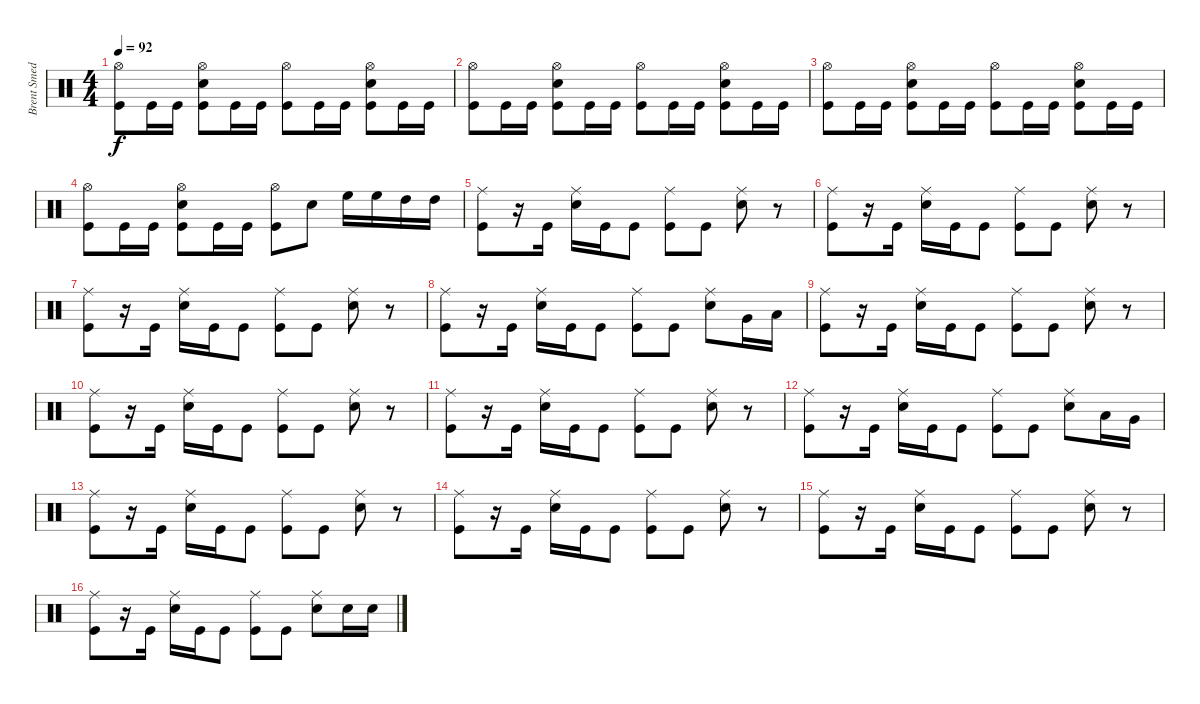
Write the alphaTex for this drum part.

\track ("Brent Smedley" "Brent Smed") {instrument percussion}
\staff {score}
\articulation defaults
\ts (4 4)
\tempo 92
\clef neutral
\ks c
("Hi-Hat (open)" "Kick (hit)").8{dy f} "Kick (hit)".16 "Kick (hit)".16 ("Hi-Hat (open)" "Electric Snare (hit)" "Kick (hit)").8 "Kick (hit)".16 "Kick (hit)".16 ("Hi-Hat (open)" "Kick (hit)").8 "Kick (hit)".16 "Kick (hit)".16 ("Hi-Hat (open)" "Electric Snare (hit)" "Kick (hit)").8 "Kick (hit)".16 "Kick (hit)".16 |
("Hi-Hat (open)" "Kick (hit)").8 "Kick (hit)".16 "Kick (hit)".16 ("Hi-Hat (open)" "Electric Snare (hit)" "Kick (hit)").8 "Kick (hit)".16 "Kick (hit)".16 ("Hi-Hat (open)" "Kick (hit)").8 "Kick (hit)".16 "Kick (hit)".16 ("Hi-Hat (open)" "Electric Snare (hit)" "Kick (hit)").8 "Kick (hit)".16 "Kick (hit)".16 |
("Hi-Hat (open)" "Kick (hit)").8 "Kick (hit)".16 "Kick (hit)".16 ("Hi-Hat (open)" "Electric Snare (hit)" "Kick (hit)").8 "Kick (hit)".16 "Kick (hit)".16 ("Hi-Hat (open)" "Kick (hit)").8 "Kick (hit)".16 "Kick (hit)".16 ("Hi-Hat (open)" "Electric Snare (hit)" "Kick (hit)").8 "Kick (hit)".16 "Kick (hit)".16 |
("Hi-Hat (open)" "Kick (hit)").8 "Kick (hit)".16 "Kick (hit)".16 ("Hi-Hat (open)" "Electric Snare (hit)" "Kick (hit)").8 "Kick (hit)".16 "Kick (hit)".16 ("Hi-Hat (open)" "Kick (hit)").8 "Electric Snare (hit)".8 "High Floor Tom (hit)".16 "High Floor Tom (hit)".16 "High Tom (hit)".16 "High Tom (hit)".16 |
("Ride (middle)" "Kick (hit)").8 r.16 "Kick (hit)".16 ("Ride (middle)" "Electric Snare (hit)").16 "Kick (hit)".16 "Kick (hit)".8 ("Ride (middle)" "Kick (hit)").8 "Kick (hit)".8 ("Ride (middle)" "Electric Snare (hit)").8 r.8 |
("Ride (middle)" "Kick (hit)").8 r.16 "Kick (hit)".16 ("Ride (middle)" "Electric Snare (hit)").16 "Kick (hit)".16 "Kick (hit)".8 ("Ride (middle)" "Kick (hit)").8 "Kick (hit)".8 ("Ride (middle)" "Electric Snare (hit)").8 r.8 |
("Ride (middle)" "Kick (hit)").8 r.16 "Kick (hit)".16 ("Ride (middle)" "Electric Snare (hit)").16 "Kick (hit)".16 "Kick (hit)".8 ("Ride (middle)" "Kick (hit)").8 "Kick (hit)".8 ("Ride (middle)" "Electric Snare (hit)").8 r.8 |
("Ride (middle)" "Kick (hit)").8 r.16 "Kick (hit)".16 ("Ride (middle)" "Electric Snare (hit)").16 "Kick (hit)".16 "Kick (hit)".8 ("Ride (middle)" "Kick (hit)").8 "Kick (hit)".8 ("Ride (middle)" "Electric Snare (hit)").8 "Very Low Tom (hit)".16 "Low Floor Tom (hit)".16 |
("Ride (middle)" "Kick (hit)").8 r.16 "Kick (hit)".16 ("Ride (middle)" "Electric Snare (hit)").16 "Kick (hit)".16 "Kick (hit)".8 ("Ride (middle)" "Kick (hit)").8 "Kick (hit)".8 ("Ride (middle)" "Electric Snare (hit)").8 r.8 |
("Ride (middle)" "Kick (hit)").8 r.16 "Kick (hit)".16 ("Ride (middle)" "Electric Snare (hit)").16 "Kick (hit)".16 "Kick (hit)".8 ("Ride (middle)" "Kick (hit)").8 "Kick (hit)".8 ("Ride (middle)" "Electric Snare (hit)").8 r.8 |
("Ride (middle)" "Kick (hit)").8 r.16 "Kick (hit)".16 ("Ride (middle)" "Electric Snare (hit)").16 "Kick (hit)".16 "Kick (hit)".8 ("Ride (middle)" "Kick (hit)").8 "Kick (hit)".8 ("Ride (middle)" "Electric Snare (hit)").8 r.8 |
("Ride (middle)" "Kick (hit)").8 r.16 "Kick (hit)".16 ("Ride (middle)" "Electric Snare (hit)").16 "Kick (hit)".16 "Kick (hit)".8 ("Ride (middle)" "Kick (hit)").8 "Kick (hit)".8 ("Ride (middle)" "Electric Snare (hit)").8 "Low Tom (hit)".16 "Very Low Tom (hit)".16 |
("Ride (middle)" "Kick (hit)").8 r.16 "Kick (hit)".16 ("Ride (middle)" "Electric Snare (hit)").16 "Kick (hit)".16 "Kick (hit)".8 ("Ride (middle)" "Kick (hit)").8 "Kick (hit)".8 ("Ride (middle)" "Electric Snare (hit)").8 r.8 |
("Ride (middle)" "Kick (hit)").8 r.16 "Kick (hit)".16 ("Ride (middle)" "Electric Snare (hit)").16 "Kick (hit)".16 "Kick (hit)".8 ("Ride (middle)" "Kick (hit)").8 "Kick (hit)".8 ("Ride (middle)" "Electric Snare (hit)").8 r.8 |
("Ride (middle)" "Kick (hit)").8 r.16 "Kick (hit)".16 ("Ride (middle)" "Electric Snare (hit)").16 "Kick (hit)".16 "Kick (hit)".8 ("Ride (middle)" "Kick (hit)").8 "Kick (hit)".8 ("Ride (middle)" "Electric Snare (hit)").8 r.8 |
("Ride (middle)" "Kick (hit)").8 r.16 "Kick (hit)".16 ("Ride (middle)" "Electric Snare (hit)").16 "Kick (hit)".16 "Kick (hit)".8 ("Ride (middle)" "Kick (hit)").8 "Kick (hit)".8 ("Ride (middle)" "Electric Snare (hit)").8 "Electric Snare (hit)".16 "Electric Snare (hit)".16
